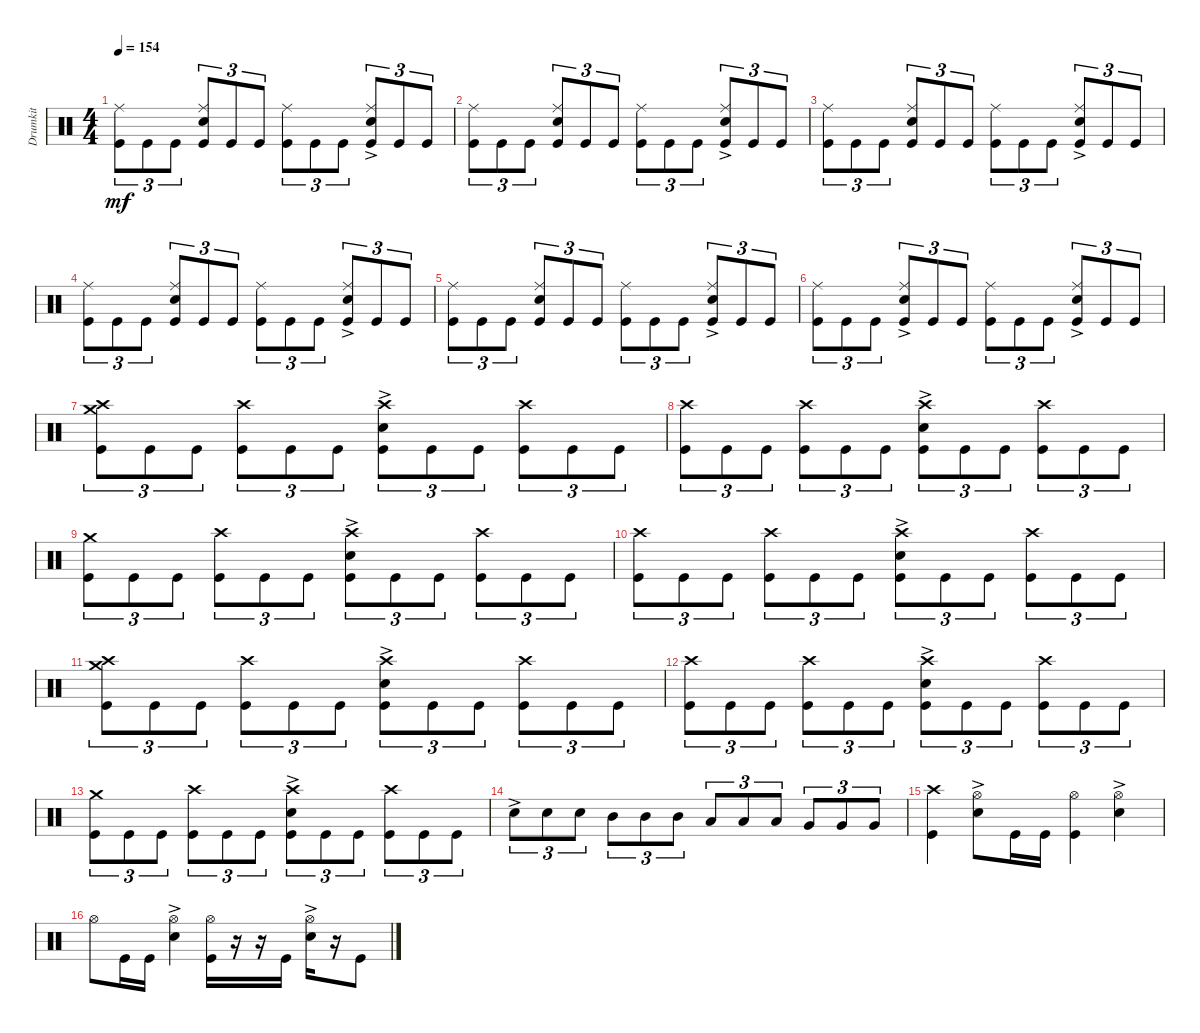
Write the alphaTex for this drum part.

\track ("Drumkit" "Drumkit") {instrument percussion}
\staff {score}
\articulation defaults
\ts (4 4)
\tempo 154
\clef neutral
\ks c
("Kick (hit)" "Ride (middle)").8{tu (3 2) dy mf} "Kick (hit)".8{tu (3 2)} "Kick (hit)".8{tu (3 2)} ("Snare (hit) 2" "Ride (middle)" "Kick (hit)").8{tu (3 2)} "Kick (hit)".8{tu (3 2)} "Kick (hit)".8{tu (3 2)} ("Kick (hit)" "Ride (middle)").8{tu (3 2)} "Kick (hit)".8{tu (3 2)} "Kick (hit)".8{tu (3 2)} ("Snare (hit) 2"{ac} "Ride (middle)" "Kick (hit)").8{tu (3 2)} "Kick (hit)".8{tu (3 2)} "Kick (hit)".8{tu (3 2)} |
("Kick (hit)" "Ride (middle)").8{tu (3 2)} "Kick (hit)".8{tu (3 2)} "Kick (hit)".8{tu (3 2)} ("Snare (hit) 2" "Ride (middle)" "Kick (hit)").8{tu (3 2)} "Kick (hit)".8{tu (3 2)} "Kick (hit)".8{tu (3 2)} ("Kick (hit)" "Ride (middle)").8{tu (3 2)} "Kick (hit)".8{tu (3 2)} "Kick (hit)".8{tu (3 2)} ("Snare (hit) 2"{ac} "Ride (middle)" "Kick (hit)").8{tu (3 2)} "Kick (hit)".8{tu (3 2)} "Kick (hit)".8{tu (3 2)} |
("Kick (hit)" "Ride (middle)").8{tu (3 2)} "Kick (hit)".8{tu (3 2)} "Kick (hit)".8{tu (3 2)} ("Snare (hit) 2" "Ride (middle)" "Kick (hit)").8{tu (3 2)} "Kick (hit)".8{tu (3 2)} "Kick (hit)".8{tu (3 2)} ("Kick (hit)" "Ride (middle)").8{tu (3 2)} "Kick (hit)".8{tu (3 2)} "Kick (hit)".8{tu (3 2)} ("Snare (hit) 2"{ac} "Ride (middle)" "Kick (hit)").8{tu (3 2)} "Kick (hit)".8{tu (3 2)} "Kick (hit)".8{tu (3 2)} |
("Kick (hit)" "Ride (middle)").8{tu (3 2)} "Kick (hit)".8{tu (3 2)} "Kick (hit)".8{tu (3 2)} ("Snare (hit) 2" "Ride (middle)" "Kick (hit)").8{tu (3 2)} "Kick (hit)".8{tu (3 2)} "Kick (hit)".8{tu (3 2)} ("Kick (hit)" "Ride (middle)").8{tu (3 2)} "Kick (hit)".8{tu (3 2)} "Kick (hit)".8{tu (3 2)} ("Snare (hit) 2"{ac} "Ride (middle)" "Kick (hit)").8{tu (3 2)} "Kick (hit)".8{tu (3 2)} "Kick (hit)".8{tu (3 2)} |
("Kick (hit)" "Ride (middle)").8{tu (3 2)} "Kick (hit)".8{tu (3 2)} "Kick (hit)".8{tu (3 2)} ("Snare (hit) 2" "Ride (middle)" "Kick (hit)").8{tu (3 2)} "Kick (hit)".8{tu (3 2)} "Kick (hit)".8{tu (3 2)} ("Kick (hit)" "Ride (middle)").8{tu (3 2)} "Kick (hit)".8{tu (3 2)} "Kick (hit)".8{tu (3 2)} ("Snare (hit) 2"{ac} "Ride (middle)" "Kick (hit)").8{tu (3 2)} "Kick (hit)".8{tu (3 2)} "Kick (hit)".8{tu (3 2)} |
("Kick (hit)" "Ride (middle)").8{tu (3 2)} "Kick (hit)".8{tu (3 2)} "Kick (hit)".8{tu (3 2)} ("Snare (hit) 2"{ac} "Ride (middle)" "Kick (hit)").8{tu (3 2)} "Kick (hit)".8{tu (3 2)} "Kick (hit)".8{tu (3 2)} ("Kick (hit)" "Ride (middle)").8{tu (3 2)} "Kick (hit)".8{tu (3 2)} "Kick (hit)".8{tu (3 2)} ("Snare (hit) 2"{ac} "Ride (middle)" "Kick (hit)").8{tu (3 2)} "Kick (hit)".8{tu (3 2)} "Kick (hit)".8{tu (3 2)} |
("Kick (hit)" "Crash high (hit)" "Crash medium (hit)").8{tu (3 2)} "Kick (hit)".8{tu (3 2)} "Kick (hit)".8{tu (3 2)} ("Kick (hit)" "Crash high (hit)").8{tu (3 2)} "Kick (hit)".8{tu (3 2)} "Kick (hit)".8{tu (3 2)} ("Kick (hit)" "Crash high (hit)" "Snare (hit) 2"{ac}).8{tu (3 2)} "Kick (hit)".8{tu (3 2)} "Kick (hit)".8{tu (3 2)} ("Kick (hit)" "Crash high (hit)").8{tu (3 2)} "Kick (hit)".8{tu (3 2)} "Kick (hit)".8{tu (3 2)} |
("Kick (hit)" "Crash high (hit)").8{tu (3 2)} "Kick (hit)".8{tu (3 2)} "Kick (hit)".8{tu (3 2)} ("Kick (hit)" "Crash high (hit)").8{tu (3 2)} "Kick (hit)".8{tu (3 2)} "Kick (hit)".8{tu (3 2)} ("Kick (hit)" "Crash high (hit)" "Snare (hit) 2"{ac}).8{tu (3 2)} "Kick (hit)".8{tu (3 2)} "Kick (hit)".8{tu (3 2)} ("Kick (hit)" "Crash high (hit)").8{tu (3 2)} "Kick (hit)".8{tu (3 2)} "Kick (hit)".8{tu (3 2)} |
("Kick (hit)" "Crash medium (hit)").8{tu (3 2)} "Kick (hit)".8{tu (3 2)} "Kick (hit)".8{tu (3 2)} ("Kick (hit)" "Crash high (hit)").8{tu (3 2)} "Kick (hit)".8{tu (3 2)} "Kick (hit)".8{tu (3 2)} ("Kick (hit)" "Crash high (hit)" "Snare (hit) 2"{ac}).8{tu (3 2)} "Kick (hit)".8{tu (3 2)} "Kick (hit)".8{tu (3 2)} ("Kick (hit)" "Crash high (hit)").8{tu (3 2)} "Kick (hit)".8{tu (3 2)} "Kick (hit)".8{tu (3 2)} |
("Kick (hit)" "Crash high (hit)").8{tu (3 2)} "Kick (hit)".8{tu (3 2)} "Kick (hit)".8{tu (3 2)} ("Kick (hit)" "Crash high (hit)").8{tu (3 2)} "Kick (hit)".8{tu (3 2)} "Kick (hit)".8{tu (3 2)} ("Kick (hit)" "Crash high (hit)" "Snare (hit) 2"{ac}).8{tu (3 2)} "Kick (hit)".8{tu (3 2)} "Kick (hit)".8{tu (3 2)} ("Kick (hit)" "Crash high (hit)").8{tu (3 2)} "Kick (hit)".8{tu (3 2)} "Kick (hit)".8{tu (3 2)} |
("Kick (hit)" "Crash high (hit)" "Crash medium (hit)").8{tu (3 2)} "Kick (hit)".8{tu (3 2)} "Kick (hit)".8{tu (3 2)} ("Kick (hit)" "Crash high (hit)").8{tu (3 2)} "Kick (hit)".8{tu (3 2)} "Kick (hit)".8{tu (3 2)} ("Kick (hit)" "Crash high (hit)" "Snare (hit) 2"{ac}).8{tu (3 2)} "Kick (hit)".8{tu (3 2)} "Kick (hit)".8{tu (3 2)} ("Kick (hit)" "Crash high (hit)").8{tu (3 2)} "Kick (hit)".8{tu (3 2)} "Kick (hit)".8{tu (3 2)} |
("Kick (hit)" "Crash high (hit)").8{tu (3 2)} "Kick (hit)".8{tu (3 2)} "Kick (hit)".8{tu (3 2)} ("Kick (hit)" "Crash high (hit)").8{tu (3 2)} "Kick (hit)".8{tu (3 2)} "Kick (hit)".8{tu (3 2)} ("Kick (hit)" "Crash high (hit)" "Snare (hit) 2"{ac}).8{tu (3 2)} "Kick (hit)".8{tu (3 2)} "Kick (hit)".8{tu (3 2)} ("Kick (hit)" "Crash high (hit)").8{tu (3 2)} "Kick (hit)".8{tu (3 2)} "Kick (hit)".8{tu (3 2)} |
("Kick (hit)" "Crash medium (hit)").8{tu (3 2)} "Kick (hit)".8{tu (3 2)} "Kick (hit)".8{tu (3 2)} ("Kick (hit)" "Crash high (hit)").8{tu (3 2)} "Kick (hit)".8{tu (3 2)} "Kick (hit)".8{tu (3 2)} ("Kick (hit)" "Crash high (hit)" "Snare (hit) 2"{ac}).8{tu (3 2)} "Kick (hit)".8{tu (3 2)} "Kick (hit)".8{tu (3 2)} ("Kick (hit)" "Crash high (hit)").8{tu (3 2)} "Kick (hit)".8{tu (3 2)} "Kick (hit)".8{tu (3 2)} |
"Snare (hit) 2"{ac}.8{tu (3 2)} "Snare (hit) 2".8{tu (3 2)} "Snare (hit) 2".8{tu (3 2)} "Mid Tom (hit)".8{tu (3 2)} "Mid Tom (hit)".8{tu (3 2)} "Mid Tom (hit)".8{tu (3 2)} "Low Tom (hit)".8{tu (3 2)} "Low Tom (hit)".8{tu (3 2)} "Low Tom (hit)".8{tu (3 2)} "Very Low Tom (hit)".8{tu (3 2)} "Very Low Tom (hit)".8{tu (3 2)} "Very Low Tom (hit)".8{tu (3 2)} |
("Crash high (hit)" "Kick (hit)").4 ("Snare (hit) 2"{ac} "Hi-Hat (open)").8 "Kick (hit)".16 "Kick (hit)".16 ("Kick (hit)" "Hi-Hat (open)").4 ("Hi-Hat (open)" "Snare (hit) 2"{ac}).4 |
"Hi-Hat (open)".8 "Kick (hit)".16 "Kick (hit)".16 ("Snare (hit) 2"{ac} "Hi-Hat (open)").4 ("Hi-Hat (open)" "Kick (hit)").16 r.16 r.16 "Kick (hit)".16 ("Snare (hit) 2"{ac} "Hi-Hat (open)").16 r.16 "Kick (hit)".8
